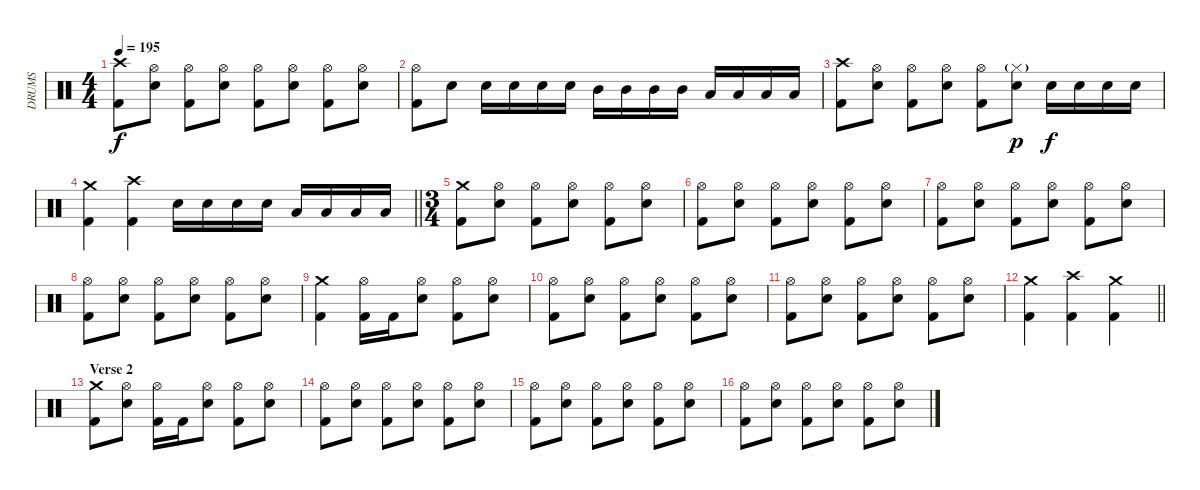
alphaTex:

\track ("DRUMS" "DRUMS") {instrument percussion}
\staff {score}
\articulation defaults
\ts (4 4)
\tempo 195
\clef neutral
\ks c
("Crash high (hit)" "Kick (hit) 2").8{dy f} ("Hi-Hat (open)" "Snare (hit) 2").8 ("Hi-Hat (open)" "Kick (hit) 2").8 ("Hi-Hat (open)" "Snare (hit) 2").8 ("Hi-Hat (open)" "Kick (hit) 2").8 ("Hi-Hat (open)" "Snare (hit) 2").8 ("Hi-Hat (open)" "Kick (hit) 2").8 ("Hi-Hat (open)" "Snare (hit) 2").8 |
("Hi-Hat (open)" "Kick (hit) 2").8 "Snare (hit) 2".8 "Snare (hit) 2".16 "Snare (hit) 2".16 "Snare (hit) 2".16 "Snare (hit) 2".16 "Mid Tom (hit)".16 "Mid Tom (hit)".16 "Mid Tom (hit)".16 "Mid Tom (hit)".16 "Low Tom (hit)".16 "Low Tom (hit)".16 "Low Tom (hit)".16 "Low Tom (hit)".16 |
("Crash high (hit)" "Kick (hit) 2").8 ("Hi-Hat (open)" "Snare (hit) 2").8 ("Hi-Hat (open)" "Kick (hit) 2").8 ("Hi-Hat (open)" "Snare (hit) 2").8 ("Hi-Hat (open)" "Kick (hit) 2").8 ("Hi-Hat (closed)"{g} "Snare (hit) 2").8{dy p} "Snare (hit) 2".16{dy f} "Snare (hit) 2".16 "Snare (hit) 2".16 "Snare (hit) 2".16 |
\barLineRight lightlight
("Crash medium (hit)" "Kick (hit) 2").4 ("Crash high (hit)" "Kick (hit) 2").4 "Snare (hit) 2".16 "Snare (hit) 2".16 "Snare (hit) 2".16 "Snare (hit) 2".16 "Low Tom (hit)".16 "Low Tom (hit)".16 "Low Tom (hit)".16 "Low Tom (hit)".16 |
\ts (3 4)
("Crash medium (hit)" "Kick (hit) 2").8 ("Hi-Hat (open)" "Snare (hit) 2").8 ("Hi-Hat (open)" "Kick (hit) 2").8 ("Hi-Hat (open)" "Snare (hit) 2").8 ("Hi-Hat (open)" "Kick (hit) 2").8 ("Hi-Hat (open)" "Snare (hit) 2").8 |
("Hi-Hat (open)" "Kick (hit) 2").8 ("Hi-Hat (open)" "Snare (hit) 2").8 ("Hi-Hat (open)" "Kick (hit) 2").8 ("Hi-Hat (open)" "Snare (hit) 2").8 ("Hi-Hat (open)" "Kick (hit) 2").8 ("Hi-Hat (open)" "Snare (hit) 2").8 |
("Hi-Hat (open)" "Kick (hit) 2").8 ("Hi-Hat (open)" "Snare (hit) 2").8 ("Hi-Hat (open)" "Kick (hit) 2").8 ("Hi-Hat (open)" "Snare (hit) 2").8 ("Hi-Hat (open)" "Kick (hit) 2").8 ("Hi-Hat (open)" "Snare (hit) 2").8 |
("Hi-Hat (open)" "Kick (hit) 2").8 ("Hi-Hat (open)" "Snare (hit) 2").8 ("Hi-Hat (open)" "Kick (hit) 2").8 ("Hi-Hat (open)" "Snare (hit) 2").8 ("Hi-Hat (open)" "Kick (hit) 2").8 ("Hi-Hat (open)" "Snare (hit) 2").8 |
("Crash medium (hit)" "Kick (hit) 2").4 ("Hi-Hat (open)" "Kick (hit) 2").16 "Kick (hit) 2".16 ("Hi-Hat (open)" "Snare (hit) 2").8 ("Hi-Hat (open)" "Kick (hit) 2").8 ("Hi-Hat (open)" "Snare (hit) 2").8 |
("Hi-Hat (open)" "Kick (hit) 2").8 ("Hi-Hat (open)" "Snare (hit) 2").8 ("Hi-Hat (open)" "Kick (hit) 2").8 ("Hi-Hat (open)" "Snare (hit) 2").8 ("Hi-Hat (open)" "Kick (hit) 2").8 ("Hi-Hat (open)" "Snare (hit) 2").8 |
("Hi-Hat (open)" "Kick (hit) 2").8 ("Hi-Hat (open)" "Snare (hit) 2").8 ("Hi-Hat (open)" "Kick (hit) 2").8 ("Hi-Hat (open)" "Snare (hit) 2").8 ("Hi-Hat (open)" "Kick (hit) 2").8 ("Hi-Hat (open)" "Snare (hit) 2").8 |
\barLineRight lightlight
("Crash medium (hit)" "Kick (hit) 2").4 ("Crash high (hit)" "Kick (hit) 2").4 ("Crash medium (hit)" "Kick (hit) 2").4 |
\section ("" "Verse 2")
("Crash medium (hit)" "Kick (hit) 2").8 ("Hi-Hat (open)" "Snare (hit) 2").8 ("Hi-Hat (open)" "Kick (hit) 2").16 "Kick (hit) 2".16 ("Hi-Hat (open)" "Snare (hit) 2").8 ("Hi-Hat (open)" "Kick (hit) 2").8 ("Hi-Hat (open)" "Snare (hit) 2").8 |
("Hi-Hat (open)" "Kick (hit) 2").8 ("Hi-Hat (open)" "Snare (hit) 2").8 ("Hi-Hat (open)" "Kick (hit) 2").8 ("Hi-Hat (open)" "Snare (hit) 2").8 ("Hi-Hat (open)" "Kick (hit) 2").8 ("Hi-Hat (open)" "Snare (hit) 2").8 |
("Hi-Hat (open)" "Kick (hit) 2").8 ("Hi-Hat (open)" "Snare (hit) 2").8 ("Hi-Hat (open)" "Kick (hit) 2").8 ("Hi-Hat (open)" "Snare (hit) 2").8 ("Hi-Hat (open)" "Kick (hit) 2").8 ("Hi-Hat (open)" "Snare (hit) 2").8 |
("Hi-Hat (open)" "Kick (hit) 2").8 ("Hi-Hat (open)" "Snare (hit) 2").8 ("Hi-Hat (open)" "Kick (hit) 2").8 ("Hi-Hat (open)" "Snare (hit) 2").8 ("Hi-Hat (open)" "Kick (hit) 2").8 ("Hi-Hat (open)" "Snare (hit) 2").8
